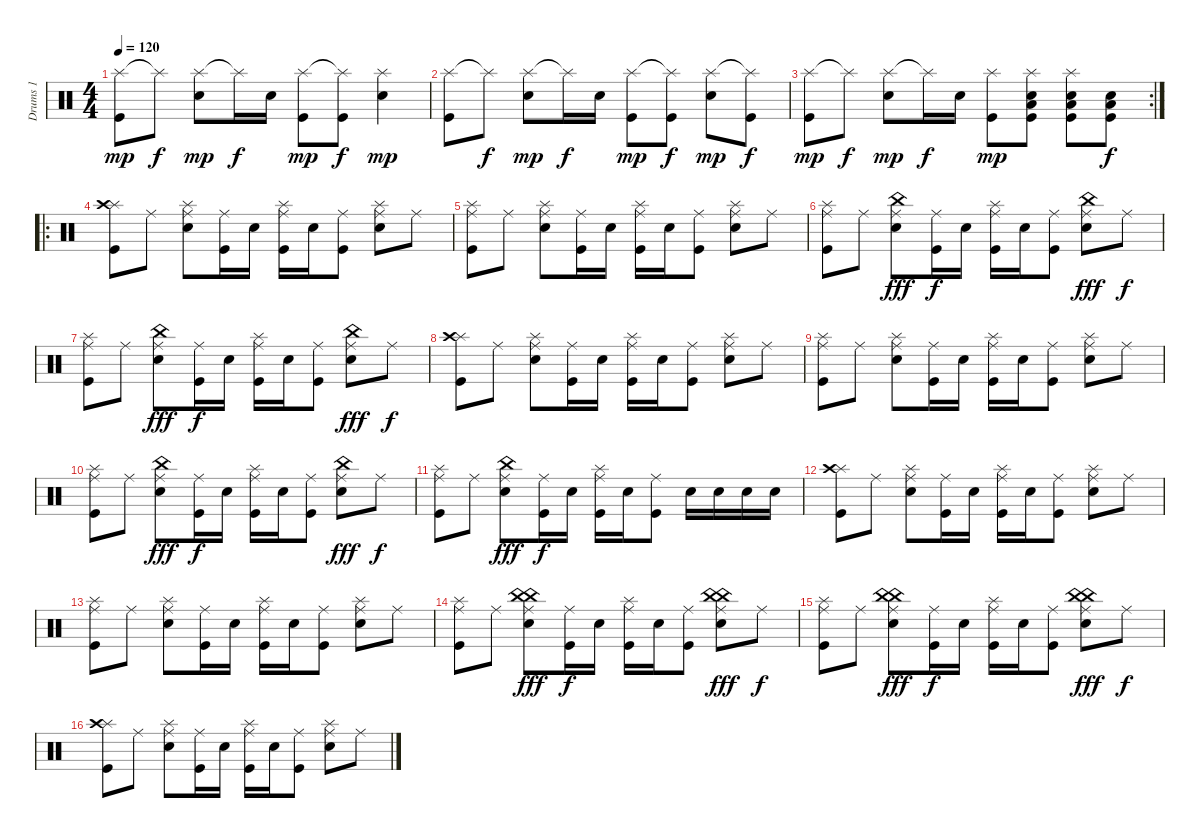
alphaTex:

\track ("Drums 1" "Drums 1") {instrument percussion}
\staff {score}
\articulation defaults
\ts (4 4)
\tempo 120
\clef neutral
\ks c
("Splash (hit)" "Kick (hit)").8{dy mp} "Splash (hit)"{t}.8{dy f} ("Splash (hit)" "Electric Snare (hit)").8{dy mp} "Splash (hit)"{t}.16{dy f} "Electric Snare (hit)".16 ("Splash (hit)" "Kick (hit)").8{dy mp} ("Splash (hit)"{t} "Kick (hit)").8{dy f} ("Splash (hit)" "Electric Snare (hit)").4{dy mp} |
("Splash (hit)" "Kick (hit)").8 "Splash (hit)"{t}.8{dy f} ("Splash (hit)" "Electric Snare (hit)").8{dy mp} "Splash (hit)"{t}.16{dy f} "Electric Snare (hit)".16 ("Splash (hit)" "Kick (hit)").8{dy mp} ("Splash (hit)"{t} "Kick (hit)").8{dy f} ("Splash (hit)" "Electric Snare (hit)").8{dy mp} ("Splash (hit)"{t} "Kick (hit)").8{dy f} |
\rc 2
("Splash (hit)" "Kick (hit)").8{dy mp} "Splash (hit)"{t}.8{dy f} ("Splash (hit)" "Electric Snare (hit)").8{dy mp} "Splash (hit)"{t}.16{dy f} "Electric Snare (hit)".16 ("Splash (hit)" "Kick (hit)").8{dy mp} ("Splash (hit)" "Kick (hit)" "Low Tom (hit)" "Snare (hit) 2").8 ("Splash (hit)" "Kick (hit)" "Low Tom (hit)" "Snare (hit) 2").8 ("Kick (hit)" "Low Tom (hit)" "Snare (hit) 2").8{dy f} |
\ro
("Splash (hit)" "Kick (hit)" "Crash high (hit)").8 "Ride (middle)".8 ("Splash (hit)" "Electric Snare (hit)" "Ride (middle)").8 ("Kick (hit)" "Ride (middle)").16 "Electric Snare (hit)".16 ("Splash (hit)" "Kick (hit)" "Ride (middle)").16 "Electric Snare (hit)".16 ("Kick (hit)" "Ride (middle)").8 ("Splash (hit)" "Electric Snare (hit)" "Ride (middle)").8 "Ride (middle)".8 |
("Splash (hit)" "Kick (hit)" "Ride (middle)").8 "Ride (middle)".8 ("Splash (hit)" "Electric Snare (hit)" "Ride (middle)").8 ("Kick (hit)" "Ride (middle)").16 "Electric Snare (hit)".16 ("Splash (hit)" "Kick (hit)" "Ride (middle)").16 "Electric Snare (hit)".16 ("Kick (hit)" "Ride (middle)").8 ("Splash (hit)" "Electric Snare (hit)" "Ride (middle)").8 "Ride (middle)".8 |
("Splash (hit)" "Kick (hit)" "Ride (middle)").8 "Ride (middle)".8 ("China (hit)" "Electric Snare (hit)" "Ride (middle)").8{dy fff} ("Kick (hit)" "Ride (middle)").16{dy f} "Electric Snare (hit)".16 ("Splash (hit)" "Kick (hit)" "Ride (middle)").16 "Electric Snare (hit)".16 ("Kick (hit)" "Ride (middle)").8 ("China (hit)" "Electric Snare (hit)" "Ride (middle)").8{dy fff} "Ride (middle)".8{dy f} |
("Splash (hit)" "Kick (hit)" "Ride (middle)").8 "Ride (middle)".8 ("China (hit)" "Electric Snare (hit)" "Ride (middle)").8{dy fff} ("Kick (hit)" "Ride (middle)").16{dy f} "Electric Snare (hit)".16 ("Splash (hit)" "Kick (hit)" "Ride (middle)").16 "Electric Snare (hit)".16 ("Kick (hit)" "Ride (middle)").8 ("China (hit)" "Electric Snare (hit)" "Ride (middle)").8{dy fff} "Ride (middle)".8{dy f} |
("Splash (hit)" "Kick (hit)" "Crash high (hit)").8 "Ride (middle)".8 ("Splash (hit)" "Electric Snare (hit)" "Ride (middle)").8 ("Kick (hit)" "Ride (middle)").16 "Electric Snare (hit)".16 ("Splash (hit)" "Kick (hit)" "Ride (middle)").16 "Electric Snare (hit)".16 ("Kick (hit)" "Ride (middle)").8 ("Splash (hit)" "Electric Snare (hit)" "Ride (middle)").8 "Ride (middle)".8 |
("Splash (hit)" "Kick (hit)" "Ride (middle)").8 "Ride (middle)".8 ("Splash (hit)" "Electric Snare (hit)" "Ride (middle)").8 ("Kick (hit)" "Ride (middle)").16 "Electric Snare (hit)".16 ("Splash (hit)" "Kick (hit)" "Ride (middle)").16 "Electric Snare (hit)".16 ("Kick (hit)" "Ride (middle)").8 ("Splash (hit)" "Electric Snare (hit)" "Ride (middle)").8 "Ride (middle)".8 |
("Splash (hit)" "Kick (hit)" "Ride (middle)").8 "Ride (middle)".8 ("China (hit)" "Electric Snare (hit)" "Ride (middle)").8{dy fff} ("Kick (hit)" "Ride (middle)").16{dy f} "Electric Snare (hit)".16 ("Splash (hit)" "Kick (hit)" "Ride (middle)").16 "Electric Snare (hit)".16 ("Kick (hit)" "Ride (middle)").8 ("China (hit)" "Electric Snare (hit)" "Ride (middle)").8{dy fff} "Ride (middle)".8{dy f} |
("Splash (hit)" "Kick (hit)" "Ride (middle)").8 "Ride (middle)".8 ("China (hit)" "Electric Snare (hit)" "Ride (middle)").8{dy fff} ("Kick (hit)" "Ride (middle)").16{dy f} "Electric Snare (hit)".16 ("Splash (hit)" "Kick (hit)" "Ride (middle)").16 "Electric Snare (hit)".16 ("Kick (hit)" "Ride (middle)").8 "Electric Snare (hit)".16 "Electric Snare (hit)".16 "Electric Snare (hit)".16 "Electric Snare (hit)".16 |
("Splash (hit)" "Kick (hit)" "Crash high (hit)").8 "Ride (middle)".8 ("Splash (hit)" "Electric Snare (hit)" "Ride (middle)").8 ("Kick (hit)" "Ride (middle)").16 "Electric Snare (hit)".16 ("Splash (hit)" "Kick (hit)" "Ride (middle)").16 "Electric Snare (hit)".16 ("Kick (hit)" "Ride (middle)").8 ("Splash (hit)" "Electric Snare (hit)" "Ride (middle)").8 "Ride (middle)".8 |
("Splash (hit)" "Kick (hit)" "Ride (middle)").8 "Ride (middle)".8 ("Splash (hit)" "Electric Snare (hit)" "Ride (middle)").8 ("Kick (hit)" "Ride (middle)").16 "Electric Snare (hit)".16 ("Splash (hit)" "Kick (hit)" "Ride (middle)").16 "Electric Snare (hit)".16 ("Kick (hit)" "Ride (middle)").8 ("Splash (hit)" "Electric Snare (hit)" "Ride (middle)").8 "Ride (middle)".8 |
("Splash (hit)" "Kick (hit)" "Ride (middle)").8 "Ride (middle)".8 ("China (hit)" "Electric Snare (hit)" "Ride (middle)" "China (hit)").8{dy fff} ("Kick (hit)" "Ride (middle)").16{dy f} "Electric Snare (hit)".16 ("Splash (hit)" "Kick (hit)" "Ride (middle)").16 "Electric Snare (hit)".16 ("Kick (hit)" "Ride (middle)").8 ("China (hit)" "Electric Snare (hit)" "Ride (middle)" "China (hit)").8{dy fff} "Ride (middle)".8{dy f} |
("Splash (hit)" "Kick (hit)" "Ride (middle)").8 "Ride (middle)".8 ("China (hit)" "Electric Snare (hit)" "Ride (middle)" "China (hit)").8{dy fff} ("Kick (hit)" "Ride (middle)").16{dy f} "Electric Snare (hit)".16 ("Splash (hit)" "Kick (hit)" "Ride (middle)").16 "Electric Snare (hit)".16 ("Kick (hit)" "Ride (middle)").8 ("China (hit)" "Electric Snare (hit)" "Ride (middle)" "China (hit)").8{dy fff} "Ride (middle)".8{dy f} |
("Splash (hit)" "Kick (hit)" "Crash high (hit)").8 "Ride (middle)".8 ("Splash (hit)" "Electric Snare (hit)" "Ride (middle)").8 ("Kick (hit)" "Ride (middle)").16 "Electric Snare (hit)".16 ("Splash (hit)" "Kick (hit)" "Ride (middle)").16 "Electric Snare (hit)".16 ("Kick (hit)" "Ride (middle)").8 ("Splash (hit)" "Electric Snare (hit)" "Ride (middle)").8 "Ride (middle)".8
